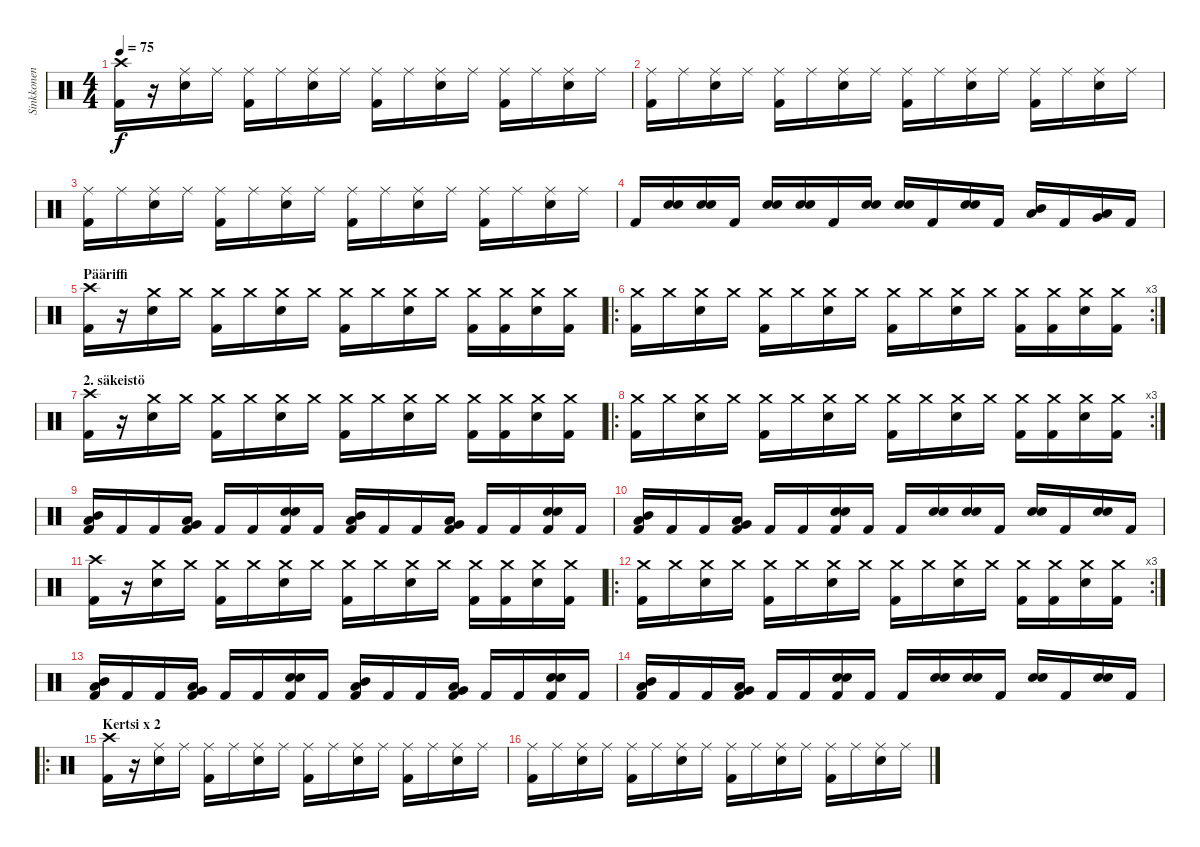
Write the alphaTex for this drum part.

\track ("Sinkkonen" "Sinkkonen") {instrument percussion}
\staff {score}
\articulation defaults
\ts (4 4)
\tempo 75
\clef neutral
\ks c
("Crash high (hit)" "Kick (hit) 2").16{dy f} r.16 ("Ride (middle)" "Electric Snare (hit)").16 "Ride (middle)".16 ("Ride (middle)" "Kick (hit) 2").16 "Ride (middle)".16 ("Ride (middle)" "Electric Snare (hit)").16 "Ride (middle)".16 ("Ride (middle)" "Kick (hit) 2").16 "Ride (middle)".16 ("Ride (middle)" "Electric Snare (hit)").16 "Ride (middle)".16 ("Ride (middle)" "Kick (hit) 2").16 "Ride (middle)".16 ("Ride (middle)" "Electric Snare (hit)").16 "Ride (middle)".16 |
("Ride (middle)" "Kick (hit) 2").16 "Ride (middle)".16 ("Ride (middle)" "Electric Snare (hit)").16 "Ride (middle)".16 ("Ride (middle)" "Kick (hit) 2").16 "Ride (middle)".16 ("Ride (middle)" "Electric Snare (hit)").16 "Ride (middle)".16 ("Ride (middle)" "Kick (hit) 2").16 "Ride (middle)".16 ("Ride (middle)" "Electric Snare (hit)").16 "Ride (middle)".16 ("Ride (middle)" "Kick (hit) 2").16 "Ride (middle)".16 ("Ride (middle)" "Electric Snare (hit)").16 "Ride (middle)".16 |
("Ride (middle)" "Kick (hit) 2").16 "Ride (middle)".16 ("Ride (middle)" "Electric Snare (hit)").16 "Ride (middle)".16 ("Ride (middle)" "Kick (hit) 2").16 "Ride (middle)".16 ("Ride (middle)" "Electric Snare (hit)").16 "Ride (middle)".16 ("Ride (middle)" "Kick (hit) 2").16 "Ride (middle)".16 ("Ride (middle)" "Electric Snare (hit)").16 "Ride (middle)".16 ("Ride (middle)" "Kick (hit) 2").16 "Ride (middle)".16 ("Ride (middle)" "Electric Snare (hit)").16 "Ride (middle)".16 |
"Kick (hit) 2".16 ("Electric Snare (hit)" "Electric Snare (hit)").16 ("Electric Snare (hit)" "Electric Snare (hit)").16 "Kick (hit) 2".16 ("Electric Snare (hit)" "Electric Snare (hit)").16 ("Electric Snare (hit)" "Electric Snare (hit)").16 "Kick (hit) 2".16 ("Electric Snare (hit)" "Electric Snare (hit)").16 ("Electric Snare (hit)" "Electric Snare (hit)").16 "Kick (hit) 2".16 ("Electric Snare (hit)" "Electric Snare (hit)").16 "Kick (hit) 2".16 ("Mid Tom (hit)" "Low Tom (hit)").16 "Kick (hit) 2".16 ("Low Tom (hit)" "Very Low Tom (hit)").16 "Kick (hit) 2".16 |
\section ("" "Pääriffi")
("Crash high (hit)" "Kick (hit) 2").16 r.16 ("Crash medium (hit)" "Electric Snare (hit)").16 "Crash medium (hit)".16 ("Crash medium (hit)" "Kick (hit) 2").16 "Crash medium (hit)".16 ("Crash medium (hit)" "Electric Snare (hit)").16 "Crash medium (hit)".16 ("Crash medium (hit)" "Kick (hit) 2").16 "Crash medium (hit)".16 ("Crash medium (hit)" "Electric Snare (hit)").16 "Crash medium (hit)".16 ("Crash medium (hit)" "Kick (hit) 2").16 ("Crash medium (hit)" "Kick (hit) 2").16 ("Crash medium (hit)" "Electric Snare (hit)").16 ("Crash medium (hit)" "Kick (hit) 2").16 |
\ro
\rc 3
("Crash medium (hit)" "Kick (hit) 2").16 "Crash medium (hit)".16 ("Crash medium (hit)" "Electric Snare (hit)").16 "Crash medium (hit)".16 ("Crash medium (hit)" "Kick (hit) 2").16 "Crash medium (hit)".16 ("Crash medium (hit)" "Electric Snare (hit)").16 "Crash medium (hit)".16 ("Crash medium (hit)" "Kick (hit) 2").16 "Crash medium (hit)".16 ("Crash medium (hit)" "Electric Snare (hit)").16 "Crash medium (hit)".16 ("Crash medium (hit)" "Kick (hit) 2").16 ("Crash medium (hit)" "Kick (hit) 2").16 ("Crash medium (hit)" "Electric Snare (hit)").16 ("Crash medium (hit)" "Kick (hit) 2").16 |
\section ("" "2. säkeistö")
("Crash high (hit)" "Kick (hit) 2").16 r.16 ("Crash medium (hit)" "Electric Snare (hit)").16 "Crash medium (hit)".16 ("Crash medium (hit)" "Kick (hit) 2").16 "Crash medium (hit)".16 ("Crash medium (hit)" "Electric Snare (hit)").16 "Crash medium (hit)".16 ("Crash medium (hit)" "Kick (hit) 2").16 "Crash medium (hit)".16 ("Crash medium (hit)" "Electric Snare (hit)").16 "Crash medium (hit)".16 ("Crash medium (hit)" "Kick (hit) 2").16 ("Crash medium (hit)" "Kick (hit) 2").16 ("Crash medium (hit)" "Electric Snare (hit)").16 ("Crash medium (hit)" "Kick (hit) 2").16 |
\ro
\rc 3
("Crash medium (hit)" "Kick (hit) 2").16 "Crash medium (hit)".16 ("Crash medium (hit)" "Electric Snare (hit)").16 "Crash medium (hit)".16 ("Crash medium (hit)" "Kick (hit) 2").16 "Crash medium (hit)".16 ("Crash medium (hit)" "Electric Snare (hit)").16 "Crash medium (hit)".16 ("Crash medium (hit)" "Kick (hit) 2").16 "Crash medium (hit)".16 ("Crash medium (hit)" "Electric Snare (hit)").16 "Crash medium (hit)".16 ("Crash medium (hit)" "Kick (hit) 2").16 ("Crash medium (hit)" "Kick (hit) 2").16 ("Crash medium (hit)" "Electric Snare (hit)").16 ("Crash medium (hit)" "Kick (hit) 2").16 |
("Mid Tom (hit)" "Low Tom (hit)" "Kick (hit) 2").16 "Kick (hit) 2".16 "Kick (hit) 2".16 ("Low Tom (hit)" "Very Low Tom (hit)" "Kick (hit) 2").16 "Kick (hit) 2".16 "Kick (hit) 2".16 ("Electric Snare (hit)" "Electric Snare (hit)" "Kick (hit) 2").16 "Kick (hit) 2".16 ("Mid Tom (hit)" "Low Tom (hit)" "Kick (hit) 2").16 "Kick (hit) 2".16 "Kick (hit) 2".16 ("Low Tom (hit)" "Very Low Tom (hit)" "Kick (hit) 2").16 "Kick (hit) 2".16 "Kick (hit) 2".16 ("Electric Snare (hit)" "Electric Snare (hit)" "Kick (hit) 2").16 "Kick (hit) 2".16 |
("Mid Tom (hit)" "Low Tom (hit)" "Kick (hit) 2").16 "Kick (hit) 2".16 "Kick (hit) 2".16 ("Low Tom (hit)" "Very Low Tom (hit)" "Kick (hit) 2").16 "Kick (hit) 2".16 "Kick (hit) 2".16 ("Electric Snare (hit)" "Electric Snare (hit)" "Kick (hit) 2").16 "Kick (hit) 2".16 "Kick (hit) 2".16 ("Electric Snare (hit)" "Electric Snare (hit)").16 ("Electric Snare (hit)" "Electric Snare (hit)").16 "Kick (hit) 2".16 ("Electric Snare (hit)" "Electric Snare (hit)").16 "Kick (hit) 2".16 ("Electric Snare (hit)" "Electric Snare (hit)").16 "Kick (hit) 2".16 |
("Crash high (hit)" "Kick (hit) 2").16 r.16 ("Crash medium (hit)" "Electric Snare (hit)").16 "Crash medium (hit)".16 ("Crash medium (hit)" "Kick (hit) 2").16 "Crash medium (hit)".16 ("Crash medium (hit)" "Electric Snare (hit)").16 "Crash medium (hit)".16 ("Crash medium (hit)" "Kick (hit) 2").16 "Crash medium (hit)".16 ("Crash medium (hit)" "Electric Snare (hit)").16 "Crash medium (hit)".16 ("Crash medium (hit)" "Kick (hit) 2").16 ("Crash medium (hit)" "Kick (hit) 2").16 ("Crash medium (hit)" "Electric Snare (hit)").16 ("Crash medium (hit)" "Kick (hit) 2").16 |
\ro
\rc 3
("Crash medium (hit)" "Kick (hit) 2").16 "Crash medium (hit)".16 ("Crash medium (hit)" "Electric Snare (hit)").16 "Crash medium (hit)".16 ("Crash medium (hit)" "Kick (hit) 2").16 "Crash medium (hit)".16 ("Crash medium (hit)" "Electric Snare (hit)").16 "Crash medium (hit)".16 ("Crash medium (hit)" "Kick (hit) 2").16 "Crash medium (hit)".16 ("Crash medium (hit)" "Electric Snare (hit)").16 "Crash medium (hit)".16 ("Crash medium (hit)" "Kick (hit) 2").16 ("Crash medium (hit)" "Kick (hit) 2").16 ("Crash medium (hit)" "Electric Snare (hit)").16 ("Crash medium (hit)" "Kick (hit) 2").16 |
("Mid Tom (hit)" "Low Tom (hit)" "Kick (hit) 2").16 "Kick (hit) 2".16 "Kick (hit) 2".16 ("Low Tom (hit)" "Very Low Tom (hit)" "Kick (hit) 2").16 "Kick (hit) 2".16 "Kick (hit) 2".16 ("Electric Snare (hit)" "Electric Snare (hit)" "Kick (hit) 2").16 "Kick (hit) 2".16 ("Mid Tom (hit)" "Low Tom (hit)" "Kick (hit) 2").16 "Kick (hit) 2".16 "Kick (hit) 2".16 ("Low Tom (hit)" "Very Low Tom (hit)" "Kick (hit) 2").16 "Kick (hit) 2".16 "Kick (hit) 2".16 ("Electric Snare (hit)" "Electric Snare (hit)" "Kick (hit) 2").16 "Kick (hit) 2".16 |
("Mid Tom (hit)" "Low Tom (hit)" "Kick (hit) 2").16 "Kick (hit) 2".16 "Kick (hit) 2".16 ("Low Tom (hit)" "Very Low Tom (hit)" "Kick (hit) 2").16 "Kick (hit) 2".16 "Kick (hit) 2".16 ("Electric Snare (hit)" "Electric Snare (hit)" "Kick (hit) 2").16 "Kick (hit) 2".16 "Kick (hit) 2".16 ("Electric Snare (hit)" "Electric Snare (hit)").16 ("Electric Snare (hit)" "Electric Snare (hit)").16 "Kick (hit) 2".16 ("Electric Snare (hit)" "Electric Snare (hit)").16 "Kick (hit) 2".16 ("Electric Snare (hit)" "Electric Snare (hit)").16 "Kick (hit) 2".16 |
\ro
\section ("" "Kertsi x 2")
("Crash high (hit)" "Kick (hit) 2").16 r.16 ("Ride (middle)" "Electric Snare (hit)").16 "Ride (middle)".16 ("Ride (middle)" "Kick (hit) 2").16 "Ride (middle)".16 ("Ride (middle)" "Electric Snare (hit)").16 "Ride (middle)".16 ("Ride (middle)" "Kick (hit) 2").16 "Ride (middle)".16 ("Ride (middle)" "Electric Snare (hit)").16 "Ride (middle)".16 ("Ride (middle)" "Kick (hit) 2").16 "Ride (middle)".16 ("Ride (middle)" "Electric Snare (hit)").16 "Ride (middle)".16 |
("Ride (middle)" "Kick (hit) 2").16 "Ride (middle)".16 ("Ride (middle)" "Electric Snare (hit)").16 "Ride (middle)".16 ("Ride (middle)" "Kick (hit) 2").16 "Ride (middle)".16 ("Ride (middle)" "Electric Snare (hit)").16 "Ride (middle)".16 ("Ride (middle)" "Kick (hit) 2").16 "Ride (middle)".16 ("Ride (middle)" "Electric Snare (hit)").16 "Ride (middle)".16 ("Ride (middle)" "Kick (hit) 2").16 "Ride (middle)".16 ("Ride (middle)" "Electric Snare (hit)").16 "Ride (middle)".16
